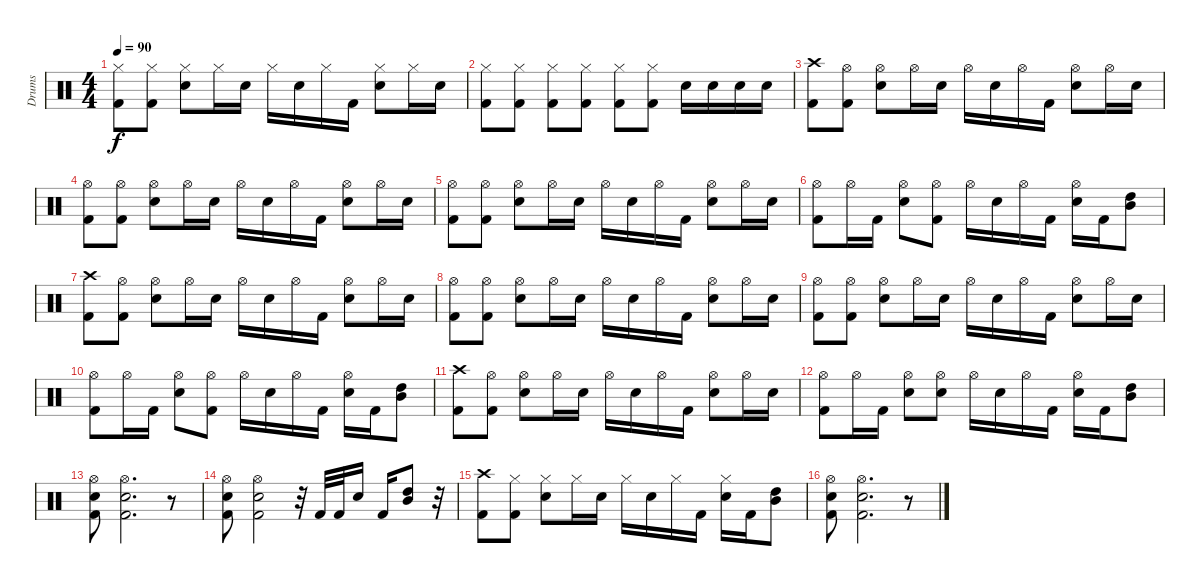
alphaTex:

\track ("Drums" "Drums") {instrument percussion}
\staff {score}
\articulation defaults
\ts (4 4)
\tempo 90
\clef neutral
\ks c
("Kick (hit) 2" "Hi-Hat (closed)").8{dy f} ("Kick (hit) 2" "Hi-Hat (closed)").8 ("Snare (hit) 2" "Hi-Hat (closed)").8 "Hi-Hat (closed)".16 "Snare (hit) 2".16 "Hi-Hat (closed)".16 "Snare (hit) 2".16 "Hi-Hat (closed)".16 "Kick (hit) 2".16 ("Snare (hit) 2" "Hi-Hat (closed)").8 "Hi-Hat (closed)".16 "Snare (hit) 2".16 |
("Kick (hit) 2" "Hi-Hat (closed)").8 ("Kick (hit) 2" "Hi-Hat (closed)").8 ("Kick (hit) 2" "Hi-Hat (closed)").8 ("Kick (hit) 2" "Hi-Hat (closed)").8 ("Kick (hit) 2" "Hi-Hat (closed)").8 ("Kick (hit) 2" "Hi-Hat (closed)").8 "Snare (hit) 2".16 "Snare (hit) 2".16 "Snare (hit) 2".16 "Snare (hit) 2".16 |
("Kick (hit) 2" "Crash high (hit)").8 ("Kick (hit) 2" "Hi-Hat (open)").8 ("Snare (hit) 2" "Hi-Hat (open)").8 "Hi-Hat (open)".16 "Snare (hit) 2".16 "Hi-Hat (open)".16 "Snare (hit) 2".16 "Hi-Hat (open)".16 "Kick (hit) 2".16 ("Snare (hit) 2" "Hi-Hat (open)").8 "Hi-Hat (open)".16 "Snare (hit) 2".16 |
("Kick (hit) 2" "Hi-Hat (open)").8 ("Kick (hit) 2" "Hi-Hat (open)").8 ("Snare (hit) 2" "Hi-Hat (open)").8 "Hi-Hat (open)".16 "Snare (hit) 2".16 "Hi-Hat (open)".16 "Snare (hit) 2".16 "Hi-Hat (open)".16 "Kick (hit) 2".16 ("Snare (hit) 2" "Hi-Hat (open)").8 "Hi-Hat (open)".16 "Snare (hit) 2".16 |
("Kick (hit) 2" "Hi-Hat (open)").8 ("Kick (hit) 2" "Hi-Hat (open)").8 ("Snare (hit) 2" "Hi-Hat (open)").8 "Hi-Hat (open)".16 "Snare (hit) 2".16 "Hi-Hat (open)".16 "Snare (hit) 2".16 "Hi-Hat (open)".16 "Kick (hit) 2".16 ("Snare (hit) 2" "Hi-Hat (open)").8 "Hi-Hat (open)".16 "Snare (hit) 2".16 |
("Kick (hit) 2" "Hi-Hat (open)").8 "Hi-Hat (open)".16 "Kick (hit) 2".16 ("Snare (hit) 2" "Hi-Hat (open)").8 ("Kick (hit) 2" "Hi-Hat (open)").8 "Hi-Hat (open)".16 "Snare (hit) 2".16 "Hi-Hat (open)".16 "Kick (hit) 2".16 ("Snare (hit) 2" "Hi-Hat (open)").16 "Kick (hit) 2".16 ("High Tom (hit)" "Mid Tom (hit)").8 |
("Kick (hit) 2" "Crash high (hit)").8 ("Kick (hit) 2" "Hi-Hat (open)").8 ("Snare (hit) 2" "Hi-Hat (open)").8 "Hi-Hat (open)".16 "Snare (hit) 2".16 "Hi-Hat (open)".16 "Snare (hit) 2".16 "Hi-Hat (open)".16 "Kick (hit) 2".16 ("Snare (hit) 2" "Hi-Hat (open)").8 "Hi-Hat (open)".16 "Snare (hit) 2".16 |
("Kick (hit) 2" "Hi-Hat (open)").8 ("Kick (hit) 2" "Hi-Hat (open)").8 ("Snare (hit) 2" "Hi-Hat (open)").8 "Hi-Hat (open)".16 "Snare (hit) 2".16 "Hi-Hat (open)".16 "Snare (hit) 2".16 "Hi-Hat (open)".16 "Kick (hit) 2".16 ("Snare (hit) 2" "Hi-Hat (open)").8 "Hi-Hat (open)".16 "Snare (hit) 2".16 |
("Kick (hit) 2" "Hi-Hat (open)").8 ("Kick (hit) 2" "Hi-Hat (open)").8 ("Snare (hit) 2" "Hi-Hat (open)").8 "Hi-Hat (open)".16 "Snare (hit) 2".16 "Hi-Hat (open)".16 "Snare (hit) 2".16 "Hi-Hat (open)".16 "Kick (hit) 2".16 ("Snare (hit) 2" "Hi-Hat (open)").8 "Hi-Hat (open)".16 "Snare (hit) 2".16 |
("Kick (hit) 2" "Hi-Hat (open)").8 "Hi-Hat (open)".16 "Kick (hit) 2".16 ("Snare (hit) 2" "Hi-Hat (open)").8 ("Kick (hit) 2" "Hi-Hat (open)").8 "Hi-Hat (open)".16 "Snare (hit) 2".16 "Hi-Hat (open)".16 "Kick (hit) 2".16 ("Snare (hit) 2" "Hi-Hat (open)").16 "Kick (hit) 2".16 ("High Tom (hit)" "Mid Tom (hit)").8 |
("Kick (hit) 2" "Crash high (hit)").8 ("Kick (hit) 2" "Hi-Hat (open)").8 ("Snare (hit) 2" "Hi-Hat (open)").8 "Hi-Hat (open)".16 "Snare (hit) 2".16 "Hi-Hat (open)".16 "Snare (hit) 2".16 "Hi-Hat (open)".16 "Kick (hit) 2".16 ("Snare (hit) 2" "Hi-Hat (open)").8 "Hi-Hat (open)".16 "Snare (hit) 2".16 |
("Kick (hit) 2" "Hi-Hat (open)").8 "Hi-Hat (open)".16 "Kick (hit) 2".16 ("Snare (hit) 2" "Hi-Hat (open)").8 ("Snare (hit) 2" "Hi-Hat (open)").8 "Hi-Hat (open)".16 "Snare (hit) 2".16 "Hi-Hat (open)".16 "Kick (hit) 2".16 ("Snare (hit) 2" "Hi-Hat (open)").16 "Kick (hit) 2".16 ("High Tom (hit)" "Mid Tom (hit)").8 |
("Kick (hit) 2" "Snare (hit) 2" "Hi-Hat (open)").8 ("Kick (hit) 2" "Snare (hit) 2" "Hi-Hat (open)").2{d} r.8 |
("Kick (hit) 2" "Snare (hit) 2" "Hi-Hat (open)").8 ("Kick (hit) 2" "Snare (hit) 2" "Hi-Hat (open)").2 r.32 "Kick (hit) 2".32 "Kick (hit) 2".32 "Snare (hit) 2".16 "Kick (hit) 2".16 ("High Tom (hit)" "Mid Tom (hit)").8 r.32 |
("Kick (hit) 2" "Crash high (hit)").8 ("Kick (hit) 2" "Hi-Hat (closed)").8 ("Snare (hit) 2" "Hi-Hat (closed)").8 "Hi-Hat (closed)".16 "Snare (hit) 2".16 "Hi-Hat (closed)".16 "Snare (hit) 2".16 "Hi-Hat (closed)".16 "Kick (hit) 2".16 ("Snare (hit) 2" "Hi-Hat (closed)").16 "Kick (hit) 2".16 ("High Tom (hit)" "Mid Tom (hit)").8 |
("Kick (hit) 2" "Snare (hit) 2" "Hi-Hat (open)").8 ("Kick (hit) 2" "Snare (hit) 2" "Hi-Hat (open)").2{d} r.8
